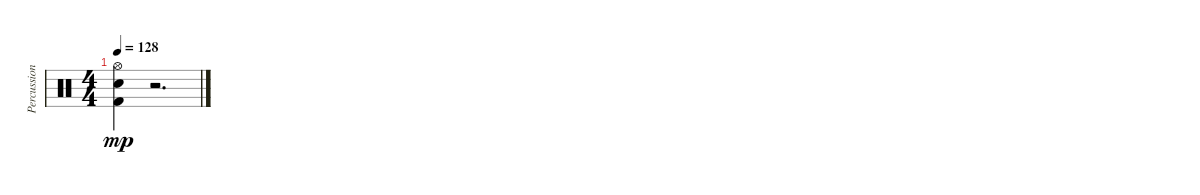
\track ("Percussion" "Percussion") {instrument percussion}
\staff {score}
\articulation defaults
\ts (4 4)
\tempo 128
\clef neutral
\ks c
("Kick (hit) 2" "Electric Snare (hit)" "Hi-Hat (open)").4{dy mp} r.2{d}
